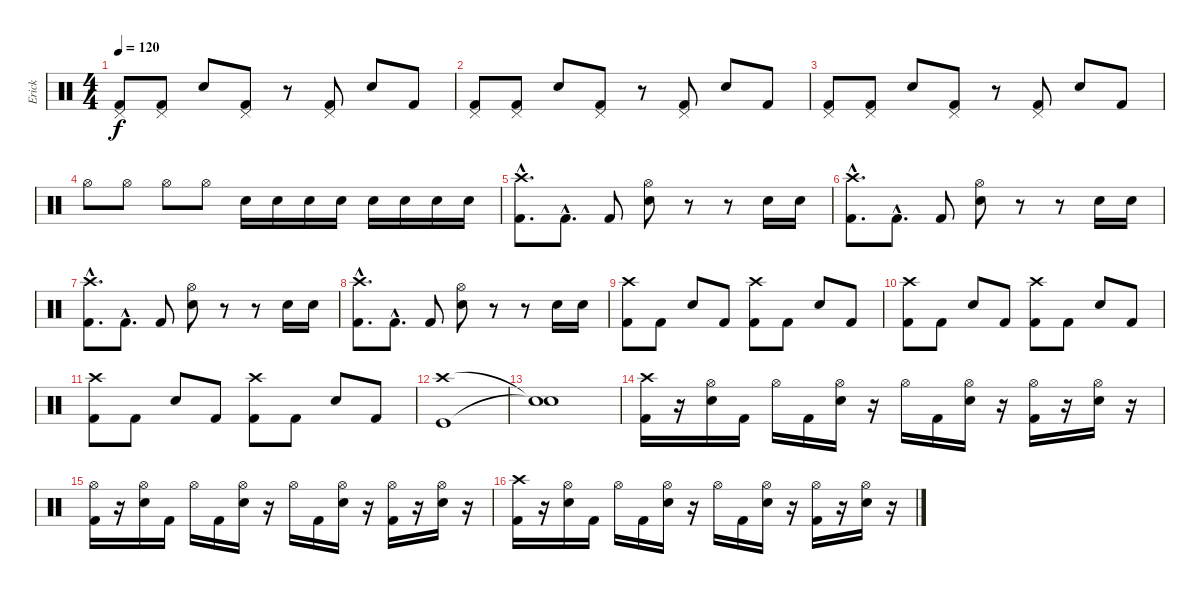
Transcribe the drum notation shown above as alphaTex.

\track ("Erick" "Erick") {instrument percussion}
\staff {score}
\articulation defaults
\ts (4 4)
\tempo 120
\clef neutral
\ks c
("Pedal Hi-Hat (hit)" "Kick (hit) 2").8{dy f} ("Pedal Hi-Hat (hit)" "Kick (hit) 2").8 "Electric Snare (hit)".8 ("Pedal Hi-Hat (hit)" "Kick (hit) 2").8 r.8 ("Pedal Hi-Hat (hit)" "Kick (hit) 2").8 "Electric Snare (hit)".8 "Kick (hit) 2".8 |
("Pedal Hi-Hat (hit)" "Kick (hit) 2").8 ("Pedal Hi-Hat (hit)" "Kick (hit) 2").8 "Electric Snare (hit)".8 ("Pedal Hi-Hat (hit)" "Kick (hit) 2").8 r.8 ("Pedal Hi-Hat (hit)" "Kick (hit) 2").8 "Electric Snare (hit)".8 "Kick (hit) 2".8 |
("Pedal Hi-Hat (hit)" "Kick (hit) 2").8 ("Pedal Hi-Hat (hit)" "Kick (hit) 2").8 "Electric Snare (hit)".8 ("Pedal Hi-Hat (hit)" "Kick (hit) 2").8 r.8 ("Pedal Hi-Hat (hit)" "Kick (hit) 2").8 "Electric Snare (hit)".8 "Kick (hit) 2".8 |
"Hi-Hat (open)".8 "Hi-Hat (open)".8 "Hi-Hat (open)".8 "Hi-Hat (open)".8 "Electric Snare (hit)".16 "Electric Snare (hit)".16 "Electric Snare (hit)".16 "Electric Snare (hit)".16 "Electric Snare (hit)".16 "Electric Snare (hit)".16 "Electric Snare (hit)".16 "Electric Snare (hit)".16 |
("Crash high (hit)"{hac} "Kick (hit) 2"{hac}).8{d} "Kick (hit) 2"{hac}.8{d} "Kick (hit) 2".8 ("Hi-Hat (open)" "Electric Snare (hit)").8 r.8 r.8 "Electric Snare (hit)".16 "Electric Snare (hit)".16 |
("Crash high (hit)"{hac} "Kick (hit) 2"{hac}).8{d} "Kick (hit) 2"{hac}.8{d} "Kick (hit) 2".8 ("Hi-Hat (open)" "Electric Snare (hit)").8 r.8 r.8 "Electric Snare (hit)".16 "Electric Snare (hit)".16 |
("Crash high (hit)"{hac} "Kick (hit) 2"{hac}).8{d} "Kick (hit) 2"{hac}.8{d} "Kick (hit) 2".8 ("Hi-Hat (open)" "Electric Snare (hit)").8 r.8 r.8 "Electric Snare (hit)".16 "Electric Snare (hit)".16 |
("Crash high (hit)"{hac} "Kick (hit) 2"{hac}).8{d} "Kick (hit) 2"{hac}.8{d} "Kick (hit) 2".8 ("Hi-Hat (open)" "Electric Snare (hit)").8 r.8 r.8 "Electric Snare (hit)".16 "Electric Snare (hit)".16 |
("Crash high (hit)" "Kick (hit) 2").8 "Kick (hit) 2".8 "Electric Snare (hit)".8 "Kick (hit) 2".8 ("Kick (hit) 2" "Crash high (hit)").8 "Kick (hit) 2".8 "Electric Snare (hit)".8 "Kick (hit) 2".8 |
("Crash high (hit)" "Kick (hit) 2").8 "Kick (hit) 2".8 "Electric Snare (hit)".8 "Kick (hit) 2".8 ("Kick (hit) 2" "Crash high (hit)").8 "Kick (hit) 2".8 "Electric Snare (hit)".8 "Kick (hit) 2".8 |
("Crash high (hit)" "Kick (hit) 2").8 "Kick (hit) 2".8 "Electric Snare (hit)".8 "Kick (hit) 2".8 ("Kick (hit) 2" "Crash high (hit)").8 "Kick (hit) 2".8 "Electric Snare (hit)".8 "Kick (hit) 2".8 |
("Kick (hit)" "Crash high (hit)").1 |
("Snare (hit)"{t} "Snare (hit)"{t}).1 |
("Crash high (hit)" "Kick (hit) 2").16 r.16 ("Hi-Hat (open)" "Electric Snare (hit)").16 "Kick (hit) 2".16 "Hi-Hat (open)".16 "Kick (hit) 2".16 ("Hi-Hat (open)" "Electric Snare (hit)").16 r.16 "Hi-Hat (open)".16 "Kick (hit) 2".16 ("Hi-Hat (open)" "Electric Snare (hit)").16 r.16 ("Hi-Hat (open)" "Kick (hit) 2").16 r.16 ("Hi-Hat (open)" "Electric Snare (hit)").16 r.16 |
("Hi-Hat (open)" "Kick (hit) 2").16 r.16 ("Hi-Hat (open)" "Electric Snare (hit)").16 "Kick (hit) 2".16 "Hi-Hat (open)".16 "Kick (hit) 2".16 ("Hi-Hat (open)" "Electric Snare (hit)").16 r.16 "Hi-Hat (open)".16 "Kick (hit) 2".16 ("Hi-Hat (open)" "Electric Snare (hit)").16 r.16 ("Hi-Hat (open)" "Kick (hit) 2").16 r.16 ("Hi-Hat (open)" "Electric Snare (hit)").16 r.16 |
("Crash high (hit)" "Kick (hit) 2").16 r.16 ("Hi-Hat (open)" "Electric Snare (hit)").16 "Kick (hit) 2".16 "Hi-Hat (open)".16 "Kick (hit) 2".16 ("Hi-Hat (open)" "Electric Snare (hit)").16 r.16 "Hi-Hat (open)".16 "Kick (hit) 2".16 ("Hi-Hat (open)" "Electric Snare (hit)").16 r.16 ("Hi-Hat (open)" "Kick (hit) 2").16 r.16 ("Hi-Hat (open)" "Electric Snare (hit)").16 r.16
